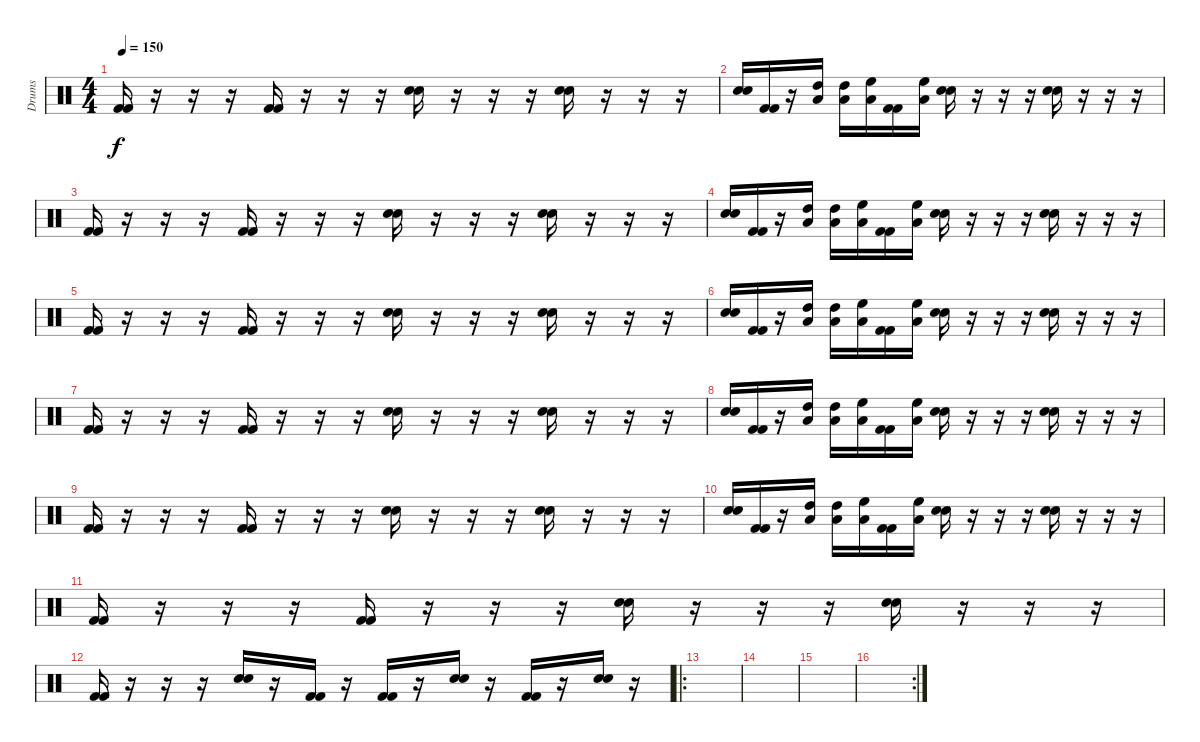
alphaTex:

\track ("Drums" "Drums") {instrument percussion}
\staff {score}
\articulation defaults
\ts (4 4)
\tempo 150
\clef neutral
\ks c
("Kick (hit) 2" "Kick (hit) 2").16{dy f} r.16 r.16 r.16 ("Kick (hit) 2" "Kick (hit) 2").16 r.16 r.16 r.16 ("Electric Snare (hit)" "Electric Snare (hit)").16 r.16 r.16 r.16 ("Electric Snare (hit)" "Electric Snare (hit)").16 r.16 r.16 r.16 |
("Electric Snare (hit)" "Electric Snare (hit)").16 ("Kick (hit) 2" "Kick (hit) 2").16 r.16 ("High Tom (hit)" "Low Tom (hit)").16 ("High Tom (hit)" "Low Tom (hit)").16 ("Low Tom (hit)" "High Floor Tom (hit)").16 ("Kick (hit) 2" "Kick (hit) 2").16 ("Low Floor Tom (hit)" "High Floor Tom (hit)").16 ("Electric Snare (hit)" "Electric Snare (hit)").16 r.16 r.16 r.16 ("Electric Snare (hit)" "Electric Snare (hit)").16 r.16 r.16 r.16 |
("Kick (hit) 2" "Kick (hit) 2").16 r.16 r.16 r.16 ("Kick (hit) 2" "Kick (hit) 2").16 r.16 r.16 r.16 ("Electric Snare (hit)" "Electric Snare (hit)").16 r.16 r.16 r.16 ("Electric Snare (hit)" "Electric Snare (hit)").16 r.16 r.16 r.16 |
("Electric Snare (hit)" "Electric Snare (hit)").16 ("Kick (hit) 2" "Kick (hit) 2").16 r.16 ("High Tom (hit)" "Low Tom (hit)").16 ("High Tom (hit)" "Low Tom (hit)").16 ("Low Tom (hit)" "High Floor Tom (hit)").16 ("Kick (hit) 2" "Kick (hit) 2").16 ("Low Floor Tom (hit)" "High Floor Tom (hit)").16 ("Electric Snare (hit)" "Electric Snare (hit)").16 r.16 r.16 r.16 ("Electric Snare (hit)" "Electric Snare (hit)").16 r.16 r.16 r.16 |
("Kick (hit) 2" "Kick (hit) 2").16 r.16 r.16 r.16 ("Kick (hit) 2" "Kick (hit) 2").16 r.16 r.16 r.16 ("Electric Snare (hit)" "Electric Snare (hit)").16 r.16 r.16 r.16 ("Electric Snare (hit)" "Electric Snare (hit)").16 r.16 r.16 r.16 |
("Electric Snare (hit)" "Electric Snare (hit)").16 ("Kick (hit) 2" "Kick (hit) 2").16 r.16 ("High Tom (hit)" "Low Tom (hit)").16 ("High Tom (hit)" "Low Tom (hit)").16 ("Low Tom (hit)" "High Floor Tom (hit)").16 ("Kick (hit) 2" "Kick (hit) 2").16 ("Low Floor Tom (hit)" "High Floor Tom (hit)").16 ("Electric Snare (hit)" "Electric Snare (hit)").16 r.16 r.16 r.16 ("Electric Snare (hit)" "Electric Snare (hit)").16 r.16 r.16 r.16 |
("Kick (hit) 2" "Kick (hit) 2").16 r.16 r.16 r.16 ("Kick (hit) 2" "Kick (hit) 2").16 r.16 r.16 r.16 ("Electric Snare (hit)" "Electric Snare (hit)").16 r.16 r.16 r.16 ("Electric Snare (hit)" "Electric Snare (hit)").16 r.16 r.16 r.16 |
("Electric Snare (hit)" "Electric Snare (hit)").16 ("Kick (hit) 2" "Kick (hit) 2").16 r.16 ("High Tom (hit)" "Low Tom (hit)").16 ("High Tom (hit)" "Low Tom (hit)").16 ("Low Tom (hit)" "High Floor Tom (hit)").16 ("Kick (hit) 2" "Kick (hit) 2").16 ("Low Floor Tom (hit)" "High Floor Tom (hit)").16 ("Electric Snare (hit)" "Electric Snare (hit)").16 r.16 r.16 r.16 ("Electric Snare (hit)" "Electric Snare (hit)").16 r.16 r.16 r.16 |
("Kick (hit) 2" "Kick (hit) 2").16 r.16 r.16 r.16 ("Kick (hit) 2" "Kick (hit) 2").16 r.16 r.16 r.16 ("Electric Snare (hit)" "Electric Snare (hit)").16 r.16 r.16 r.16 ("Electric Snare (hit)" "Electric Snare (hit)").16 r.16 r.16 r.16 |
("Electric Snare (hit)" "Electric Snare (hit)").16 ("Kick (hit) 2" "Kick (hit) 2").16 r.16 ("High Tom (hit)" "Low Tom (hit)").16 ("High Tom (hit)" "Low Tom (hit)").16 ("Low Tom (hit)" "High Floor Tom (hit)").16 ("Kick (hit) 2" "Kick (hit) 2").16 ("Low Floor Tom (hit)" "High Floor Tom (hit)").16 ("Electric Snare (hit)" "Electric Snare (hit)").16 r.16 r.16 r.16 ("Electric Snare (hit)" "Electric Snare (hit)").16 r.16 r.16 r.16 |
("Kick (hit) 2" "Kick (hit) 2").16 r.16 r.16 r.16 ("Kick (hit) 2" "Kick (hit) 2").16 r.16 r.16 r.16 ("Electric Snare (hit)" "Electric Snare (hit)").16 r.16 r.16 r.16 ("Electric Snare (hit)" "Electric Snare (hit)").16 r.16 r.16 r.16 |
("Kick (hit) 2" "Kick (hit) 2").16 r.16 r.16 r.16 ("Electric Snare (hit)" "Electric Snare (hit)").16 r.16 ("Kick (hit) 2" "Kick (hit) 2").16 r.16 ("Kick (hit) 2" "Kick (hit) 2").16 r.16 ("Electric Snare (hit)" "Electric Snare (hit)").16 r.16 ("Kick (hit) 2" "Kick (hit) 2").16 r.16 ("Electric Snare (hit)" "Electric Snare (hit)").16 r.16 |
\ro
|
|
|
\rc 2
